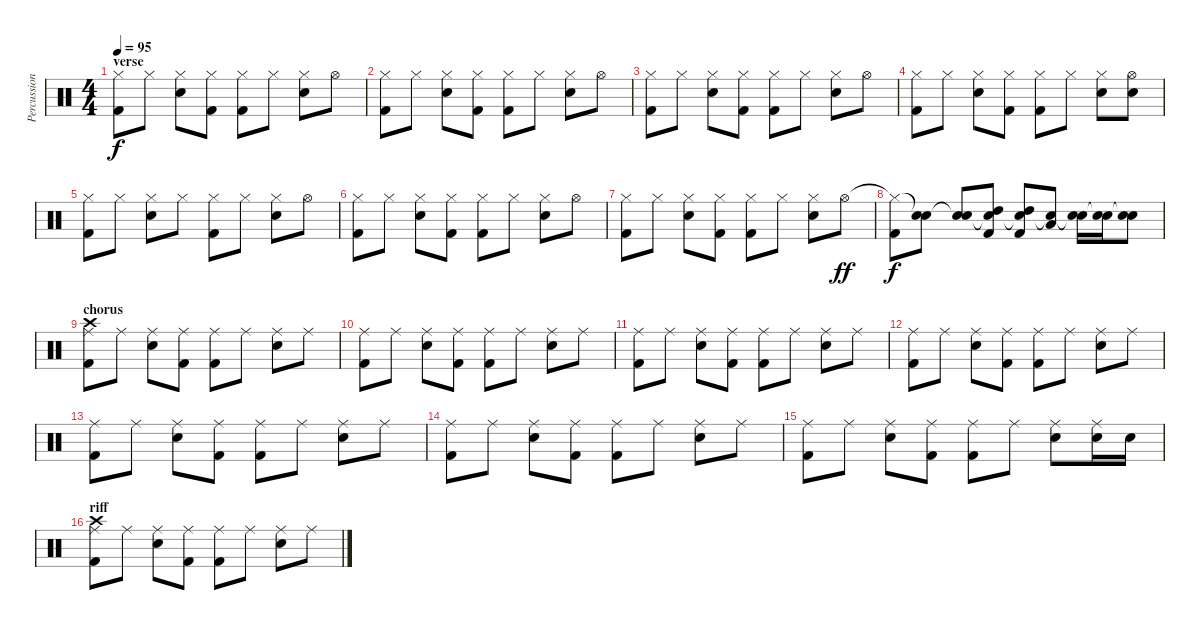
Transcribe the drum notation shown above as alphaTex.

\track ("Percussion" "Percussion") {instrument percussion}
\staff {score}
\articulation defaults
\ts (4 4)
\section ("" "verse")
\tempo 95
\clef neutral
\ks c
("Hi-Hat (closed)"{t} "Kick (hit) 2").8{dy f} "Hi-Hat (closed)".8 ("Hi-Hat (closed)" "Snare (hit) 2").8 ("Hi-Hat (closed)" "Kick (hit) 2").8 ("Hi-Hat (closed)" "Kick (hit) 2").8 "Hi-Hat (closed)".8 ("Hi-Hat (closed)" "Snare (hit) 2").8 "Hi-Hat (open)".8 |
("Hi-Hat (closed)" "Kick (hit) 2").8 "Hi-Hat (closed)".8 ("Hi-Hat (closed)" "Snare (hit) 2").8 ("Hi-Hat (closed)" "Kick (hit) 2").8 ("Hi-Hat (closed)" "Kick (hit) 2").8 "Hi-Hat (closed)".8 ("Hi-Hat (closed)" "Snare (hit) 2").8 "Hi-Hat (open)".8 |
("Hi-Hat (closed)" "Kick (hit) 2").8 "Hi-Hat (closed)".8 ("Hi-Hat (closed)" "Snare (hit) 2").8 ("Hi-Hat (closed)" "Kick (hit) 2").8 ("Hi-Hat (closed)" "Kick (hit) 2").8 "Hi-Hat (closed)".8 ("Hi-Hat (closed)" "Snare (hit) 2").8 "Hi-Hat (open)".8 |
("Hi-Hat (closed)" "Kick (hit) 2").8 "Hi-Hat (closed)".8 ("Hi-Hat (closed)" "Snare (hit) 2").8 ("Hi-Hat (closed)" "Kick (hit) 2").8 ("Hi-Hat (closed)" "Kick (hit) 2").8 "Hi-Hat (closed)".8 ("Hi-Hat (closed)" "Snare (hit) 2").8 ("Hi-Hat (open)" "Snare (hit) 2").8 |
("Hi-Hat (closed)" "Kick (hit) 2").8 "Hi-Hat (closed)".8 ("Hi-Hat (closed)" "Snare (hit) 2").8 "Hi-Hat (closed)".8 ("Hi-Hat (closed)" "Kick (hit) 2").8 "Hi-Hat (closed)".8 ("Hi-Hat (closed)" "Snare (hit) 2").8 "Hi-Hat (open)".8 |
("Hi-Hat (closed)" "Kick (hit) 2").8 "Hi-Hat (closed)".8 ("Hi-Hat (closed)" "Snare (hit) 2").8 ("Hi-Hat (closed)" "Kick (hit) 2").8 ("Hi-Hat (closed)" "Kick (hit) 2").8 "Hi-Hat (closed)".8 ("Hi-Hat (closed)" "Snare (hit) 2").8 "Hi-Hat (open)".8 |
("Hi-Hat (closed)" "Kick (hit) 2").8 "Hi-Hat (closed)".8 ("Hi-Hat (closed)" "Snare (hit) 2").8 ("Hi-Hat (closed)" "Kick (hit) 2").8 ("Hi-Hat (closed)" "Kick (hit) 2").8 "Hi-Hat (closed)".8 ("Hi-Hat (closed)" "Snare (hit) 2").8 "Hi-Hat (open)".8{dy ff} |
("Hi-Hat (closed)"{t} "Kick (hit) 2").8{dy f} ("Snare (hit)"{t} "Snare (hit) 2").8 ("Snare (hit)"{t} "Snare (hit) 2").8 ("Snare (hit)"{t} "High Tom (hit)" "Kick (hit) 2").8 ("Snare (hit)"{t} "High Tom (hit)" "Kick (hit) 2").8 ("Snare (hit)"{t} "Low Tom (hit)").8 ("Snare (hit)"{t} "Snare (hit) 2").16 ("Snare (hit)"{t} "Snare (hit) 2").16 ("Snare (hit)"{t} "Snare (hit) 2").8 |
\section ("" "chorus")
("Ride (middle)" "Crash high (hit)" "Kick (hit) 2").8 "Ride (middle)".8 ("Ride (middle)" "Snare (hit) 2").8 ("Ride (middle)" "Kick (hit) 2").8 ("Ride (middle)" "Kick (hit) 2").8 "Ride (middle)".8 ("Ride (middle)" "Snare (hit) 2").8 "Ride (middle)".8 |
("Ride (middle)" "Kick (hit) 2").8 "Ride (middle)".8 ("Ride (middle)" "Snare (hit) 2").8 ("Ride (middle)" "Kick (hit) 2").8 ("Ride (middle)" "Kick (hit) 2").8 "Ride (middle)".8 ("Ride (middle)" "Snare (hit) 2").8 "Ride (middle)".8 |
("Ride (middle)" "Kick (hit) 2").8 "Ride (middle)".8 ("Ride (middle)" "Snare (hit) 2").8 ("Ride (middle)" "Kick (hit) 2").8 ("Ride (middle)" "Kick (hit) 2").8 "Ride (middle)".8 ("Ride (middle)" "Snare (hit) 2").8 "Ride (middle)".8 |
("Ride (middle)" "Kick (hit) 2").8 "Ride (middle)".8 ("Ride (middle)" "Snare (hit) 2").8 ("Ride (middle)" "Kick (hit) 2").8 ("Ride (middle)" "Kick (hit) 2").8 "Ride (middle)".8 ("Ride (middle)" "Snare (hit) 2").8 "Ride (middle)".8 |
("Ride (middle)" "Kick (hit) 2").8 "Ride (middle)".8 ("Ride (middle)" "Snare (hit) 2").8 ("Ride (middle)" "Kick (hit) 2").8 ("Ride (middle)" "Kick (hit) 2").8 "Ride (middle)".8 ("Ride (middle)" "Snare (hit) 2").8 "Ride (middle)".8 |
("Ride (middle)" "Kick (hit) 2").8 "Ride (middle)".8 ("Ride (middle)" "Snare (hit) 2").8 ("Ride (middle)" "Kick (hit) 2").8 ("Ride (middle)" "Kick (hit) 2").8 "Ride (middle)".8 ("Ride (middle)" "Snare (hit) 2").8 "Ride (middle)".8 |
("Ride (middle)" "Kick (hit) 2").8 "Ride (middle)".8 ("Ride (middle)" "Snare (hit) 2").8 ("Ride (middle)" "Kick (hit) 2").8 ("Ride (middle)" "Kick (hit) 2").8 "Ride (middle)".8 ("Ride (middle)" "Snare (hit) 2").8 ("Ride (middle)" "Snare (hit) 2").16 "Snare (hit) 2".16 |
\section ("" "riff")
("Ride (middle)" "Crash high (hit)" "Kick (hit) 2").8 "Ride (middle)".8 ("Ride (middle)" "Snare (hit) 2").8 ("Ride (middle)" "Kick (hit) 2").8 ("Ride (middle)" "Kick (hit) 2").8 "Ride (middle)".8 ("Ride (middle)" "Snare (hit) 2").8 "Ride (middle)".8
